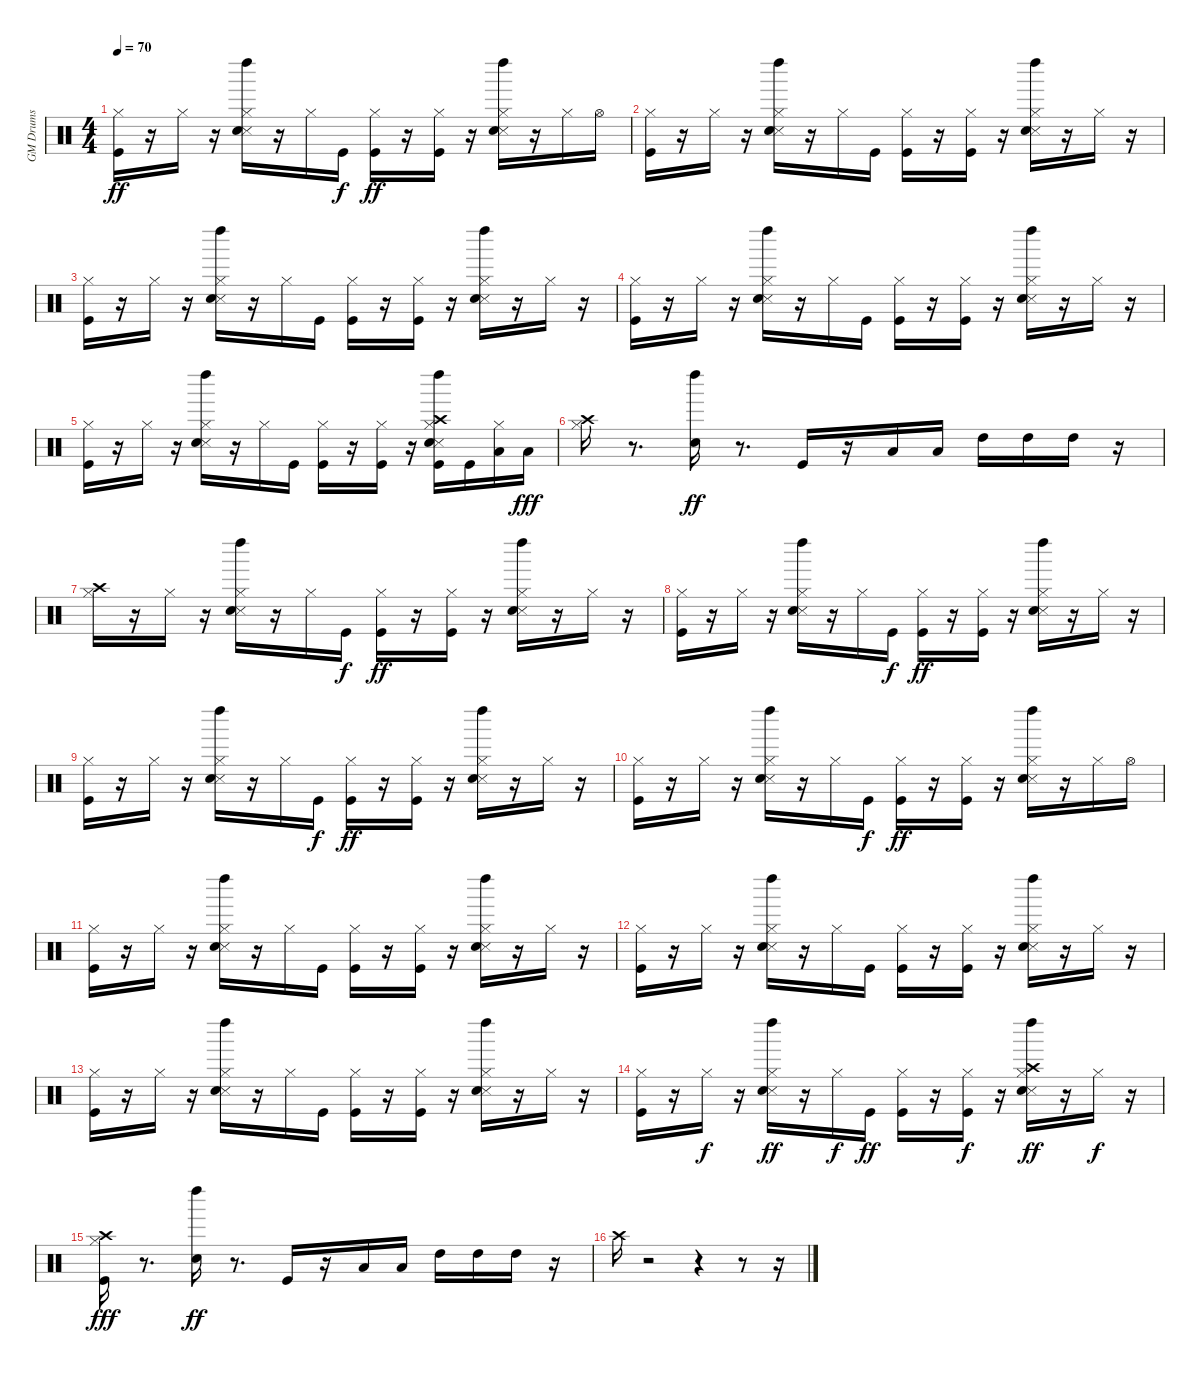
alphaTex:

\track ("GM Drums" "GM Drums") {instrument percussion}
\staff {score}
\articulation defaults
\ts (4 4)
\tempo 70
\clef neutral
\ks c
("Kick (hit)" "Hi-Hat (closed)").16{dy ff} r.16 "Hi-Hat (closed)".16 r.16 ("Snare (side stick) 3" "Snare (hit) 2" "Hi-Hat (closed)" "Left Maraca (hit)").16 r.16 "Hi-Hat (closed)".16 "Kick (hit)".16{dy f} ("Kick (hit)" "Hi-Hat (closed)").16{dy ff} r.16 ("Kick (hit)" "Hi-Hat (closed)").16 r.16 ("Snare (side stick) 3" "Snare (hit) 2" "Hi-Hat (closed)" "Left Maraca (hit)").16 r.16 "Hi-Hat (closed)".16 "Hi-Hat (open)".16 |
("Kick (hit)" "Hi-Hat (closed)").16 r.16 "Hi-Hat (closed)".16 r.16 ("Snare (side stick) 3" "Snare (hit) 2" "Hi-Hat (closed)" "Left Maraca (hit)").16 r.16 "Hi-Hat (closed)".16 "Kick (hit)".16 ("Kick (hit)" "Hi-Hat (closed)").16 r.16 ("Kick (hit)" "Hi-Hat (closed)").16 r.16 ("Snare (side stick) 3" "Snare (hit) 2" "Hi-Hat (closed)" "Left Maraca (hit)").16 r.16 "Hi-Hat (closed)".16 r.16 |
("Kick (hit)" "Hi-Hat (closed)").16 r.16 "Hi-Hat (closed)".16 r.16 ("Snare (side stick) 3" "Snare (hit) 2" "Hi-Hat (closed)" "Left Maraca (hit)").16 r.16 "Hi-Hat (closed)".16 "Kick (hit)".16 ("Kick (hit)" "Hi-Hat (closed)").16 r.16 ("Kick (hit)" "Hi-Hat (closed)").16 r.16 ("Snare (side stick) 3" "Snare (hit) 2" "Hi-Hat (closed)" "Left Maraca (hit)").16 r.16 "Hi-Hat (closed)".16 r.16 |
("Kick (hit)" "Hi-Hat (closed)").16 r.16 "Hi-Hat (closed)".16 r.16 ("Snare (side stick) 3" "Snare (hit) 2" "Hi-Hat (closed)" "Left Maraca (hit)").16 r.16 "Hi-Hat (closed)".16 "Kick (hit)".16 ("Kick (hit)" "Hi-Hat (closed)").16 r.16 ("Kick (hit)" "Hi-Hat (closed)").16 r.16 ("Snare (side stick) 3" "Snare (hit) 2" "Hi-Hat (closed)" "Left Maraca (hit)").16 r.16 "Hi-Hat (closed)".16 r.16 |
("Kick (hit)" "Hi-Hat (closed)").16 r.16 "Hi-Hat (closed)".16 r.16 ("Snare (side stick) 3" "Snare (hit) 2" "Hi-Hat (closed)" "Left Maraca (hit)").16 r.16 "Hi-Hat (closed)".16 "Kick (hit)".16 ("Kick (hit)" "Hi-Hat (closed)").16 r.16 ("Kick (hit)" "Hi-Hat (closed)").16 r.16 ("Kick (hit)" "Snare (side stick) 3" "Snare (hit) 2" "Hi-Hat (closed)" "Crash high (hit)" "Left Maraca (hit)").16 "Kick (hit)".16 ("Low Floor Tom (hit)" "Hi-Hat (closed)").16 "Low Floor Tom (hit)".16{dy fff} |
("Hi-Hat (closed)" "Crash high (hit)").16 r.8{d} ("Snare (hit) 2" "Left Maraca (hit)").16{dy ff} r.8{d} "Kick (hit)".16 r.16 "Low Floor Tom (hit)".16 "Low Floor Tom (hit)".16 "High Tom (hit)".16 "High Tom (hit)".16 "High Tom (hit)".16 r.16 |
("Hi-Hat (closed)" "Crash high (hit)").16 r.16 "Hi-Hat (closed)".16 r.16 ("Snare (side stick) 3" "Snare (hit) 2" "Hi-Hat (closed)" "Left Maraca (hit)").16 r.16 "Hi-Hat (closed)".16 "Kick (hit)".16{dy f} ("Kick (hit)" "Hi-Hat (closed)").16{dy ff} r.16 ("Kick (hit)" "Hi-Hat (closed)").16 r.16 ("Snare (side stick) 3" "Snare (hit) 2" "Hi-Hat (closed)" "Left Maraca (hit)").16 r.16 "Hi-Hat (closed)".16 r.16 |
("Kick (hit)" "Hi-Hat (closed)").16 r.16 "Hi-Hat (closed)".16 r.16 ("Snare (side stick) 3" "Snare (hit) 2" "Hi-Hat (closed)" "Left Maraca (hit)").16 r.16 "Hi-Hat (closed)".16 "Kick (hit)".16{dy f} ("Kick (hit)" "Hi-Hat (closed)").16{dy ff} r.16 ("Kick (hit)" "Hi-Hat (closed)").16 r.16 ("Snare (side stick) 3" "Snare (hit) 2" "Hi-Hat (closed)" "Left Maraca (hit)").16 r.16 "Hi-Hat (closed)".16 r.16 |
("Kick (hit)" "Hi-Hat (closed)").16 r.16 "Hi-Hat (closed)".16 r.16 ("Snare (side stick) 3" "Snare (hit) 2" "Hi-Hat (closed)" "Left Maraca (hit)").16 r.16 "Hi-Hat (closed)".16 "Kick (hit)".16{dy f} ("Kick (hit)" "Hi-Hat (closed)").16{dy ff} r.16 ("Kick (hit)" "Hi-Hat (closed)").16 r.16 ("Snare (side stick) 3" "Snare (hit) 2" "Hi-Hat (closed)" "Left Maraca (hit)").16 r.16 "Hi-Hat (closed)".16 r.16 |
("Kick (hit)" "Hi-Hat (closed)").16 r.16 "Hi-Hat (closed)".16 r.16 ("Snare (side stick) 3" "Snare (hit) 2" "Hi-Hat (closed)" "Left Maraca (hit)").16 r.16 "Hi-Hat (closed)".16 "Kick (hit)".16{dy f} ("Kick (hit)" "Hi-Hat (closed)").16{dy ff} r.16 ("Kick (hit)" "Hi-Hat (closed)").16 r.16 ("Snare (side stick) 3" "Snare (hit) 2" "Hi-Hat (closed)" "Left Maraca (hit)").16 r.16 "Hi-Hat (closed)".16 "Hi-Hat (open)".16 |
("Kick (hit)" "Hi-Hat (closed)").16 r.16 "Hi-Hat (closed)".16 r.16 ("Snare (side stick) 3" "Snare (hit) 2" "Hi-Hat (closed)" "Left Maraca (hit)").16 r.16 "Hi-Hat (closed)".16 "Kick (hit)".16 ("Kick (hit)" "Hi-Hat (closed)").16 r.16 ("Kick (hit)" "Hi-Hat (closed)").16 r.16 ("Snare (side stick) 3" "Snare (hit) 2" "Hi-Hat (closed)" "Left Maraca (hit)").16 r.16 "Hi-Hat (closed)".16 r.16 |
("Kick (hit)" "Hi-Hat (closed)").16 r.16 "Hi-Hat (closed)".16 r.16 ("Snare (side stick) 3" "Snare (hit) 2" "Hi-Hat (closed)" "Left Maraca (hit)").16 r.16 "Hi-Hat (closed)".16 "Kick (hit)".16 ("Kick (hit)" "Hi-Hat (closed)").16 r.16 ("Kick (hit)" "Hi-Hat (closed)").16 r.16 ("Snare (side stick) 3" "Snare (hit) 2" "Hi-Hat (closed)" "Left Maraca (hit)").16 r.16 "Hi-Hat (closed)".16 r.16 |
("Kick (hit)" "Hi-Hat (closed)").16 r.16 "Hi-Hat (closed)".16 r.16 ("Snare (side stick) 3" "Snare (hit) 2" "Hi-Hat (closed)" "Left Maraca (hit)").16 r.16 "Hi-Hat (closed)".16 "Kick (hit)".16 ("Kick (hit)" "Hi-Hat (closed)").16 r.16 ("Kick (hit)" "Hi-Hat (closed)").16 r.16 ("Snare (side stick) 3" "Snare (hit) 2" "Hi-Hat (closed)" "Left Maraca (hit)").16 r.16 "Hi-Hat (closed)".16 r.16 |
("Kick (hit)" "Hi-Hat (closed)").16 r.16 "Hi-Hat (closed)".16{dy f} r.16 ("Snare (side stick) 3" "Snare (hit) 2" "Hi-Hat (closed)" "Left Maraca (hit)").16{dy ff} r.16 "Hi-Hat (closed)".16{dy f} "Kick (hit)".16{dy ff} ("Kick (hit)" "Hi-Hat (closed)").16 r.16 ("Kick (hit)" "Hi-Hat (closed)").16{dy f} r.16 ("Snare (side stick) 3" "Snare (hit) 2" "Hi-Hat (closed)" "Crash high (hit)" "Left Maraca (hit)").16{dy ff} r.16 "Hi-Hat (closed)".16{dy f} r.16 |
("Kick (hit)" "Hi-Hat (closed)" "Crash high (hit)").16{dy fff} r.8{d} ("Snare (hit) 2" "Left Maraca (hit)").16{dy ff} r.8{d} "Kick (hit)".16 r.16 "Low Floor Tom (hit)".16 "Low Floor Tom (hit)".16 "High Tom (hit)".16 "High Tom (hit)".16 "High Tom (hit)".16 r.16 |
"Crash high (hit)".16 r.2 r.4 r.8 r.16
